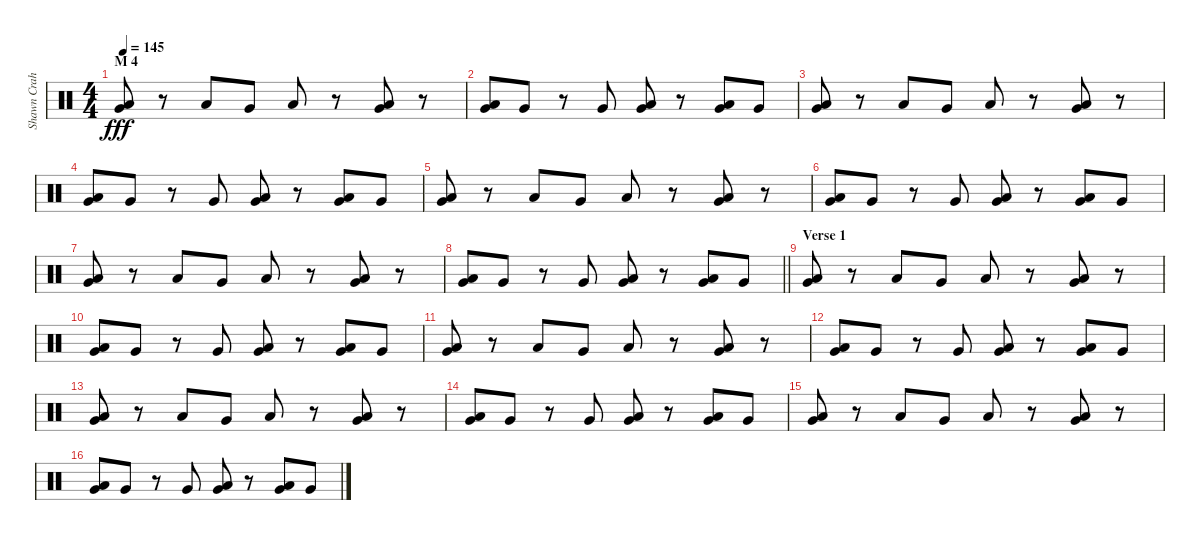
\track ("Shawn Crahan" "Shawn Crah") {instrument percussion}
\staff {score}
\articulation defaults
\ts (4 4)
\section ("" "M 4")
\tempo 145
\clef neutral
\ks c
("Very Low Tom (hit)" "Low Floor Tom (hit)").8{dy fff} r.8 "Low Floor Tom (hit)".8 "Very Low Tom (hit)".8 "Low Floor Tom (hit)".8 r.8 ("Very Low Tom (hit)" "Low Floor Tom (hit)").8 r.8 |
("Very Low Tom (hit)" "Low Floor Tom (hit)").8 "Very Low Tom (hit)".8 r.8 "Very Low Tom (hit)".8 ("Very Low Tom (hit)" "Low Floor Tom (hit)").8 r.8 ("Very Low Tom (hit)" "Low Floor Tom (hit)").8 "Very Low Tom (hit)".8 |
("Very Low Tom (hit)" "Low Floor Tom (hit)").8 r.8 "Low Floor Tom (hit)".8 "Very Low Tom (hit)".8 "Low Floor Tom (hit)".8 r.8 ("Very Low Tom (hit)" "Low Floor Tom (hit)").8 r.8 |
("Very Low Tom (hit)" "Low Floor Tom (hit)").8 "Very Low Tom (hit)".8 r.8 "Very Low Tom (hit)".8 ("Very Low Tom (hit)" "Low Floor Tom (hit)").8 r.8 ("Very Low Tom (hit)" "Low Floor Tom (hit)").8 "Very Low Tom (hit)".8 |
("Very Low Tom (hit)" "Low Floor Tom (hit)").8 r.8 "Low Floor Tom (hit)".8 "Very Low Tom (hit)".8 "Low Floor Tom (hit)".8 r.8 ("Very Low Tom (hit)" "Low Floor Tom (hit)").8 r.8 |
("Very Low Tom (hit)" "Low Floor Tom (hit)").8 "Very Low Tom (hit)".8 r.8 "Very Low Tom (hit)".8 ("Very Low Tom (hit)" "Low Floor Tom (hit)").8 r.8 ("Very Low Tom (hit)" "Low Floor Tom (hit)").8 "Very Low Tom (hit)".8 |
("Very Low Tom (hit)" "Low Floor Tom (hit)").8 r.8 "Low Floor Tom (hit)".8 "Very Low Tom (hit)".8 "Low Floor Tom (hit)".8 r.8 ("Very Low Tom (hit)" "Low Floor Tom (hit)").8 r.8 |
\barLineRight lightlight
("Very Low Tom (hit)" "Low Floor Tom (hit)").8 "Very Low Tom (hit)".8 r.8 "Very Low Tom (hit)".8 ("Very Low Tom (hit)" "Low Floor Tom (hit)").8 r.8 ("Very Low Tom (hit)" "Low Floor Tom (hit)").8 "Very Low Tom (hit)".8 |
\section ("" "Verse 1")
("Very Low Tom (hit)" "Low Floor Tom (hit)").8 r.8 "Low Floor Tom (hit)".8 "Very Low Tom (hit)".8 "Low Floor Tom (hit)".8 r.8 ("Very Low Tom (hit)" "Low Floor Tom (hit)").8 r.8 |
("Very Low Tom (hit)" "Low Floor Tom (hit)").8 "Very Low Tom (hit)".8 r.8 "Very Low Tom (hit)".8 ("Very Low Tom (hit)" "Low Floor Tom (hit)").8 r.8 ("Very Low Tom (hit)" "Low Floor Tom (hit)").8 "Very Low Tom (hit)".8 |
("Very Low Tom (hit)" "Low Floor Tom (hit)").8 r.8 "Low Floor Tom (hit)".8 "Very Low Tom (hit)".8 "Low Floor Tom (hit)".8 r.8 ("Very Low Tom (hit)" "Low Floor Tom (hit)").8 r.8 |
("Very Low Tom (hit)" "Low Floor Tom (hit)").8 "Very Low Tom (hit)".8 r.8 "Very Low Tom (hit)".8 ("Very Low Tom (hit)" "Low Floor Tom (hit)").8 r.8 ("Very Low Tom (hit)" "Low Floor Tom (hit)").8 "Very Low Tom (hit)".8 |
("Very Low Tom (hit)" "Low Floor Tom (hit)").8 r.8 "Low Floor Tom (hit)".8 "Very Low Tom (hit)".8 "Low Floor Tom (hit)".8 r.8 ("Very Low Tom (hit)" "Low Floor Tom (hit)").8 r.8 |
("Very Low Tom (hit)" "Low Floor Tom (hit)").8 "Very Low Tom (hit)".8 r.8 "Very Low Tom (hit)".8 ("Very Low Tom (hit)" "Low Floor Tom (hit)").8 r.8 ("Very Low Tom (hit)" "Low Floor Tom (hit)").8 "Very Low Tom (hit)".8 |
("Very Low Tom (hit)" "Low Floor Tom (hit)").8 r.8 "Low Floor Tom (hit)".8 "Very Low Tom (hit)".8 "Low Floor Tom (hit)".8 r.8 ("Very Low Tom (hit)" "Low Floor Tom (hit)").8 r.8 |
("Very Low Tom (hit)" "Low Floor Tom (hit)").8 "Very Low Tom (hit)".8 r.8 "Very Low Tom (hit)".8 ("Very Low Tom (hit)" "Low Floor Tom (hit)").8 r.8 ("Very Low Tom (hit)" "Low Floor Tom (hit)").8 "Very Low Tom (hit)".8
